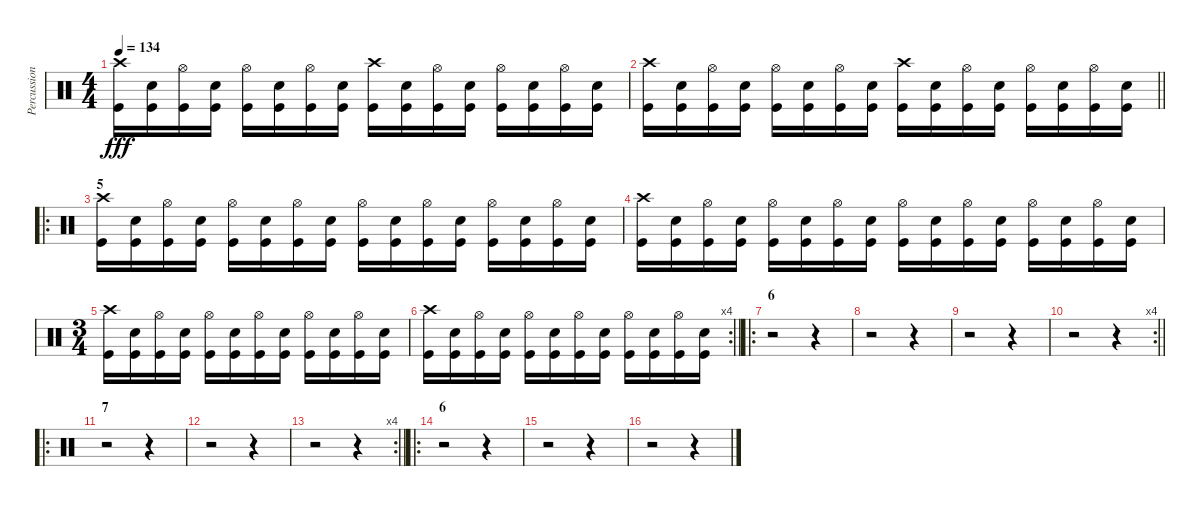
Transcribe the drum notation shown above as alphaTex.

\track ("Percussion" "Percussion") {instrument percussion}
\staff {score}
\articulation defaults
\ts (4 4)
\tempo 134
\clef neutral
\ks c
("Crash high (hit)" "Kick (hit)").16{dy fff} ("Snare (hit) 2" "Kick (hit)").16 ("Hi-Hat (open)" "Kick (hit)").16 ("Snare (hit) 2" "Kick (hit)").16 ("Hi-Hat (open)" "Kick (hit)").16 ("Snare (hit) 2" "Kick (hit)").16 ("Hi-Hat (open)" "Kick (hit)").16 ("Snare (hit) 2" "Kick (hit)").16 ("Crash high (hit)" "Kick (hit)").16 ("Snare (hit) 2" "Kick (hit)").16 ("Hi-Hat (open)" "Kick (hit)").16 ("Snare (hit) 2" "Kick (hit)").16 ("Hi-Hat (open)" "Kick (hit)").16 ("Snare (hit) 2" "Kick (hit)").16 ("Hi-Hat (open)" "Kick (hit)").16 ("Snare (hit) 2" "Kick (hit)").16 |
\barLineRight lightlight
("Crash high (hit)" "Kick (hit)").16 ("Snare (hit) 2" "Kick (hit)").16 ("Hi-Hat (open)" "Kick (hit)").16 ("Snare (hit) 2" "Kick (hit)").16 ("Hi-Hat (open)" "Kick (hit)").16 ("Snare (hit) 2" "Kick (hit)").16 ("Hi-Hat (open)" "Kick (hit)").16 ("Snare (hit) 2" "Kick (hit)").16 ("Crash high (hit)" "Kick (hit)").16 ("Snare (hit) 2" "Kick (hit)").16 ("Hi-Hat (open)" "Kick (hit)").16 ("Snare (hit) 2" "Kick (hit)").16 ("Hi-Hat (open)" "Kick (hit)").16 ("Snare (hit) 2" "Kick (hit)").16 ("Hi-Hat (open)" "Kick (hit)").16 ("Snare (hit) 2" "Kick (hit)").16 |
\ro
\section ("" "5")
("Crash high (hit)" "Kick (hit)").16 ("Snare (hit) 2" "Kick (hit)").16 ("Hi-Hat (open)" "Kick (hit)").16 ("Snare (hit) 2" "Kick (hit)").16 ("Hi-Hat (open)" "Kick (hit)").16 ("Snare (hit) 2" "Kick (hit)").16 ("Hi-Hat (open)" "Kick (hit)").16 ("Snare (hit) 2" "Kick (hit)").16 ("Hi-Hat (open)" "Kick (hit)").16 ("Snare (hit) 2" "Kick (hit)").16 ("Hi-Hat (open)" "Kick (hit)").16 ("Snare (hit) 2" "Kick (hit)").16 ("Hi-Hat (open)" "Kick (hit)").16 ("Snare (hit) 2" "Kick (hit)").16 ("Hi-Hat (open)" "Kick (hit)").16 ("Snare (hit) 2" "Kick (hit)").16 |
("Crash high (hit)" "Kick (hit)").16 ("Snare (hit) 2" "Kick (hit)").16 ("Hi-Hat (open)" "Kick (hit)").16 ("Snare (hit) 2" "Kick (hit)").16 ("Hi-Hat (open)" "Kick (hit)").16 ("Snare (hit) 2" "Kick (hit)").16 ("Hi-Hat (open)" "Kick (hit)").16 ("Snare (hit) 2" "Kick (hit)").16 ("Hi-Hat (open)" "Kick (hit)").16 ("Snare (hit) 2" "Kick (hit)").16 ("Hi-Hat (open)" "Kick (hit)").16 ("Snare (hit) 2" "Kick (hit)").16 ("Hi-Hat (open)" "Kick (hit)").16 ("Snare (hit) 2" "Kick (hit)").16 ("Hi-Hat (open)" "Kick (hit)").16 ("Snare (hit) 2" "Kick (hit)").16 |
\ts (3 4)
("Crash high (hit)" "Kick (hit)").16 ("Snare (hit) 2" "Kick (hit)").16 ("Hi-Hat (open)" "Kick (hit)").16 ("Snare (hit) 2" "Kick (hit)").16 ("Hi-Hat (open)" "Kick (hit)").16 ("Snare (hit) 2" "Kick (hit)").16 ("Hi-Hat (open)" "Kick (hit)").16 ("Snare (hit) 2" "Kick (hit)").16 ("Hi-Hat (open)" "Kick (hit)").16 ("Snare (hit) 2" "Kick (hit)").16 ("Hi-Hat (open)" "Kick (hit)").16 ("Snare (hit) 2" "Kick (hit)").16 |
\rc 4
\barLineRight lightlight
("Crash high (hit)" "Kick (hit)").16 ("Snare (hit) 2" "Kick (hit)").16 ("Hi-Hat (open)" "Kick (hit)").16 ("Snare (hit) 2" "Kick (hit)").16 ("Hi-Hat (open)" "Kick (hit)").16 ("Snare (hit) 2" "Kick (hit)").16 ("Hi-Hat (open)" "Kick (hit)").16 ("Snare (hit) 2" "Kick (hit)").16 ("Hi-Hat (open)" "Kick (hit)").16 ("Snare (hit) 2" "Kick (hit)").16 ("Hi-Hat (open)" "Kick (hit)").16 ("Snare (hit) 2" "Kick (hit)").16 |
\ro
\section ("" "6")
r.2 r.4 |
r.2 r.4 |
r.2 r.4 |
\rc 4
\barLineRight lightlight
r.2 r.4 |
\ro
\section ("" "7")
r.2 r.4 |
r.2 r.4 |
\rc 4
\barLineRight lightlight
r.2 r.4 |
\ro
\section ("" "6")
r.2 r.4 |
r.2 r.4 |
r.2 r.4
